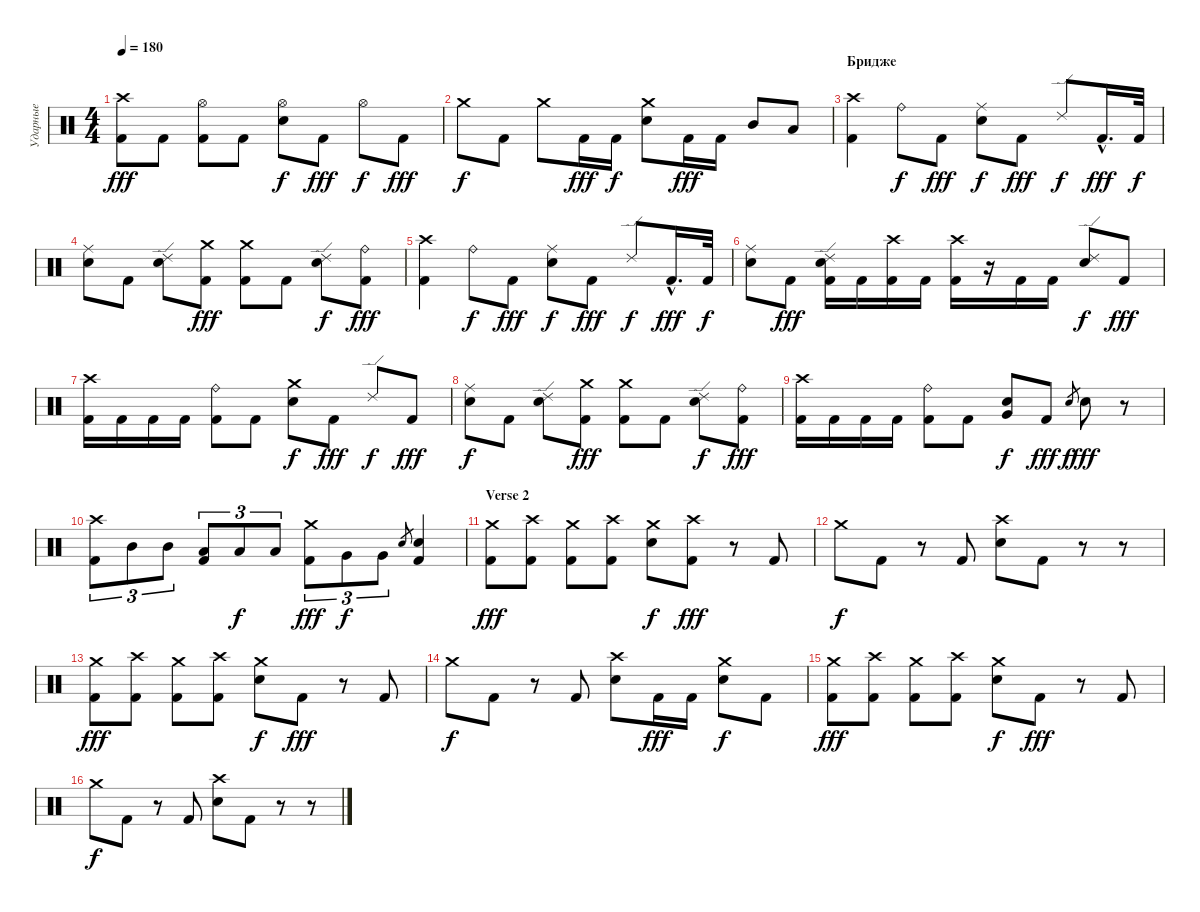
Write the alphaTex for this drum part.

\track ("Ударные" "Ударные") {instrument percussion}
\staff {score}
\articulation defaults
\ts (4 4)
\tempo 180
\clef neutral
\ks c
("Kick (hit) 2" "Crash high (hit)").8{dy fff} "Kick (hit) 2".8 ("Kick (hit) 2" "Hi-Hat (open)").8 "Kick (hit) 2".8 ("Snare (hit) 2" "Hi-Hat (open)").8{dy f} "Kick (hit) 2".8{dy fff} "Hi-Hat (open)".8{dy f} "Kick (hit) 2".8{dy fff} |
"Crash medium (hit)".8{dy f} "Kick (hit) 2".8 "Crash medium (hit)".8 "Kick (hit) 2".16{dy fff} "Kick (hit) 2".16{dy f} ("Snare (hit) 2" "Crash medium (hit)").8 "Kick (hit) 2".16{dy fff} "Kick (hit) 2".16 "Mid Tom (hit)".8 "Low Tom (hit)".8 |
\section ("" "Бридже")
("Kick (hit) 2" "Crash high (hit)").4 "Ride (bell)".8{dy f} "Kick (hit) 2".8{dy fff} ("Snare (hit) 2" "Ride (middle)").8{dy f} "Kick (hit) 2".8{dy fff} "Ride (edge) 2".8{dy f} "Kick (hit) 2"{hac}.16{d dy fff} "Kick (hit) 2".32{dy f} |
("Snare (hit) 2" "Ride (middle)").8 "Kick (hit) 2".8 ("Snare (hit) 2" "Ride (edge) 2").8 ("Kick (hit) 2" "Crash medium (hit)").8{dy fff} ("Kick (hit) 2" "Crash medium (hit)").8 "Kick (hit) 2".8 ("Snare (hit) 2" "Ride (edge) 2").8{dy f} ("Kick (hit) 2" "Ride (bell)").8{dy fff} |
("Kick (hit) 2" "Crash high (hit)").4 "Ride (bell)".8{dy f} "Kick (hit) 2".8{dy fff} ("Snare (hit) 2" "Ride (middle)").8{dy f} "Kick (hit) 2".8{dy fff} "Ride (edge) 2".8{dy f} "Kick (hit) 2"{hac}.16{d dy fff} "Kick (hit) 2".32{dy f} |
("Snare (hit) 2" "Ride (middle)").8 "Kick (hit) 2".8{dy fff} ("Kick (hit) 2" "Snare (hit) 2" "Ride (edge) 2").16 "Kick (hit) 2".16 ("Kick (hit) 2" "Crash high (hit)").16 "Kick (hit) 2".16 ("Kick (hit) 2" "Crash high (hit)").16 r.16 "Kick (hit) 2".16 "Kick (hit) 2".16 ("Snare (hit) 2" "Ride (edge) 2").8{dy f} "Kick (hit) 2".8{dy fff} |
("Kick (hit) 2" "Crash high (hit)").16 "Kick (hit) 2".16 "Kick (hit) 2".16 "Kick (hit) 2".16 ("Kick (hit) 2" "Ride (bell)").8 "Kick (hit) 2".8 ("Snare (hit) 2" "Crash medium (hit)").8{dy f} "Kick (hit) 2".8{dy fff} "Ride (edge) 2".8{dy f} "Kick (hit) 2".8{dy fff} |
("Snare (hit) 2" "Ride (middle)").8{dy f} "Kick (hit) 2".8 ("Snare (hit) 2" "Ride (edge) 2").8 ("Kick (hit) 2" "Crash medium (hit)").8{dy fff} ("Kick (hit) 2" "Crash medium (hit)").8 "Kick (hit) 2".8 ("Snare (hit) 2" "Ride (edge) 2").8{dy f} ("Kick (hit) 2" "Ride (bell)").8{dy fff} |
("Kick (hit) 2" "Crash high (hit)").16 "Kick (hit) 2".16 "Kick (hit) 2".16 "Kick (hit) 2".16 ("Kick (hit) 2" "Ride (bell)").8 "Kick (hit) 2".8 ("Snare (hit) 2" "Very Low Tom (hit)").8{dy f} "Kick (hit) 2".8{dy fff} "Snare (hit) 2".8{gr dy f} "Snare (hit) 2".8{dy fff} r.8 |
("Kick (hit) 2" "Crash high (hit)").8{tu (3 2)} "Mid Tom (hit)".8{tu (3 2)} "Mid Tom (hit)".8{tu (3 2)} ("Kick (hit) 2" "Low Tom (hit)").8{tu (3 2)} "Low Tom (hit)".8{tu (3 2) dy f} "Low Tom (hit)".8{tu (3 2)} ("Kick (hit) 2" "Crash medium (hit)").8{tu (3 2) dy fff} "Very Low Tom (hit)".8{tu (3 2) dy f} "Very Low Tom (hit)".8{tu (3 2)} "Snare (hit) 2".8{gr} ("Kick (hit) 2" "Snare (hit) 2").4 |
\section ("" "Verse 2")
("Kick (hit) 2" "Crash medium (hit)").8{dy fff} ("Kick (hit) 2" "Crash high (hit)").8 ("Kick (hit) 2" "Crash medium (hit)").8 ("Kick (hit) 2" "Crash high (hit)").8 ("Snare (hit) 2" "Crash medium (hit)").8{dy f} ("Kick (hit) 2" "Crash high (hit)").8{dy fff} r.8 "Kick (hit) 2".8 |
"Crash medium (hit)".8{dy f} "Kick (hit) 2".8 r.8 "Kick (hit) 2".8 ("Snare (hit) 2" "Crash high (hit)").8 "Kick (hit) 2".8 r.8 r.8 |
("Kick (hit) 2" "Crash medium (hit)").8{dy fff} ("Kick (hit) 2" "Crash high (hit)").8 ("Kick (hit) 2" "Crash medium (hit)").8 ("Kick (hit) 2" "Crash high (hit)").8 ("Snare (hit) 2" "Crash medium (hit)").8{dy f} "Kick (hit) 2".8{dy fff} r.8 "Kick (hit) 2".8 |
"Crash medium (hit)".8{dy f} "Kick (hit) 2".8 r.8 "Kick (hit) 2".8 ("Snare (hit) 2" "Crash high (hit)").8 "Kick (hit) 2".16{dy fff} "Kick (hit) 2".16 ("Snare (hit) 2" "Crash medium (hit)").8{dy f} "Kick (hit) 2".8 |
("Kick (hit) 2" "Crash medium (hit)").8{dy fff} ("Kick (hit) 2" "Crash high (hit)").8 ("Kick (hit) 2" "Crash medium (hit)").8 ("Kick (hit) 2" "Crash high (hit)").8 ("Snare (hit) 2" "Crash medium (hit)").8{dy f} "Kick (hit) 2".8{dy fff} r.8 "Kick (hit) 2".8 |
"Crash medium (hit)".8{dy f} "Kick (hit) 2".8 r.8 "Kick (hit) 2".8 ("Snare (hit) 2" "Crash high (hit)").8 "Kick (hit) 2".8 r.8 r.8
